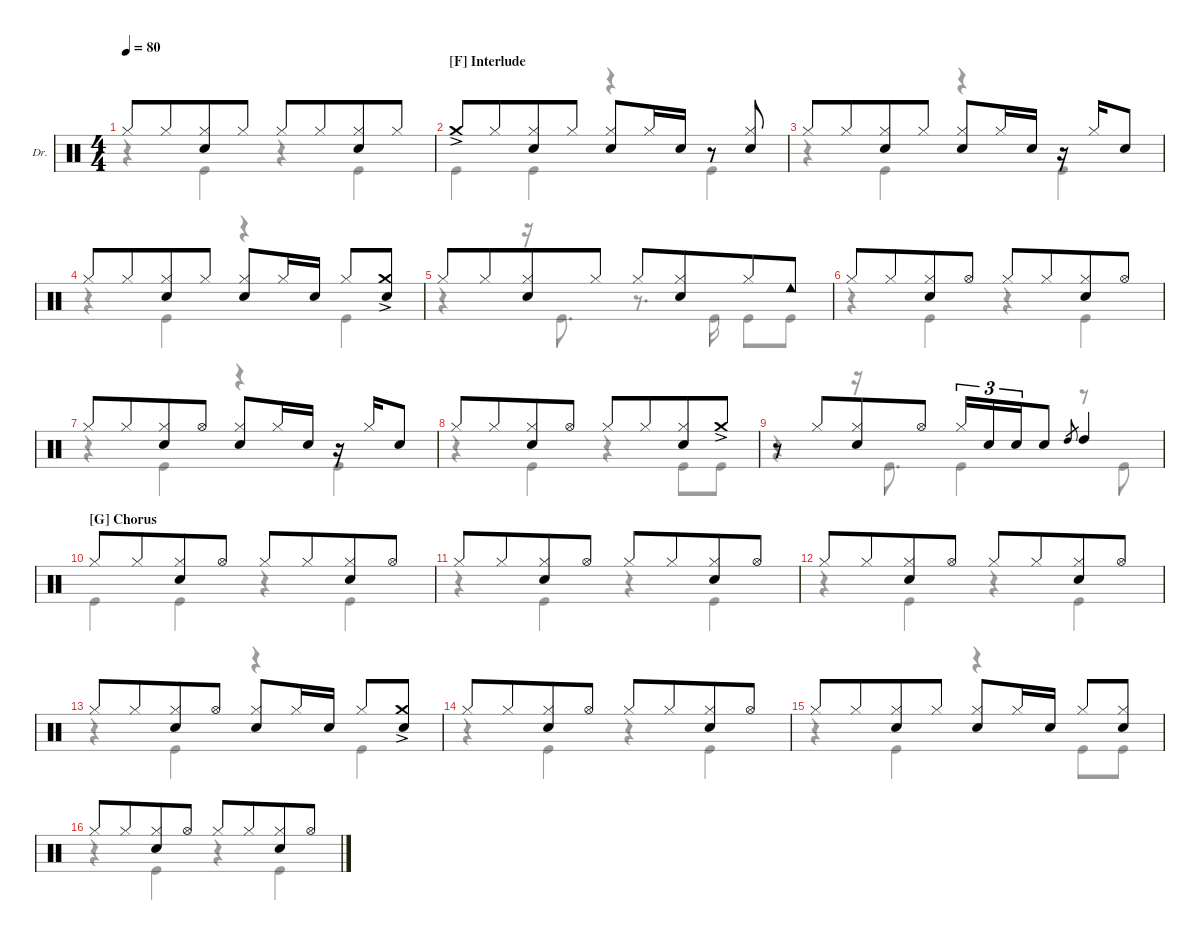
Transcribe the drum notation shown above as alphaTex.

\defaultSystemsLayout 4
\hideDynamics
\bracketExtendMode groupsimilarinstruments
\firstSystemTrackNameOrientation horizontal
\otherSystemsTrackNameOrientation horizontal
\track ("Drums" "Dr.") {multiBarRest instrument percussion}
\staff {score}
\articulation defaults
\voice
\ts (4 4)
\tempo 80
\clef neutral
\ks c "Hi-Hat (closed)".8{dy mf} "Hi-Hat (closed)".8{beam merge}
("Hi-Hat (closed)" "Snare (hit) 2").8 "Hi-Hat (closed)".8 "Hi-Hat (closed)".8 "Hi-Hat (closed)".8{beam merge} ("Hi-Hat (closed)" "Snare (hit) 2").8 "Hi-Hat (closed)".8 |
\section ("F" "Interlude")
"Crash medium (hit)"{ac}.8 "Hi-Hat (closed)".8{beam merge} ("Hi-Hat (closed)" "Snare (hit) 2").8 "Hi-Hat (closed)".8 ("Hi-Hat (closed)" "Snare (hit) 2").8 "Hi-Hat (closed)".16 "Snare (hit) 2".16 r.8 ("Hi-Hat (closed)" "Snare (hit) 2").8 |
"Hi-Hat (closed)".8 "Hi-Hat (closed)".8{beam merge} ("Hi-Hat (closed)" "Snare (hit) 2").8 "Hi-Hat (closed)".8 ("Hi-Hat (closed)" "Snare (hit) 2").8 "Hi-Hat (closed)".16 "Snare (hit) 2".16 r.16 "Hi-Hat (closed)".16 "Snare (hit) 2".8 |
"Hi-Hat (closed)".8 "Hi-Hat (closed)".8{beam merge} ("Hi-Hat (closed)" "Snare (hit) 2").8 "Hi-Hat (closed)".8 ("Hi-Hat (closed)" "Snare (hit) 2").8 "Hi-Hat (closed)".16 "Snare (hit) 2".16 "Hi-Hat (closed)".8 ("Crash medium (hit)"{ac} "Snare (hit) 2").8 |
"Hi-Hat (closed)".8 "Hi-Hat (closed)".8{beam merge} ("Hi-Hat (closed)" "Snare (hit) 2").8 "Hi-Hat (closed)".8 "Hi-Hat (closed)".8 ("Hi-Hat (closed)" "Snare (hit) 2").8{beam merge} "Hi-Hat (closed)".8{beam merge} "Cowbell low (hit)".8{beam merge} |
"Hi-Hat (closed)".8 "Hi-Hat (closed)".8{beam merge} ("Hi-Hat (closed)" "Snare (hit) 2").8{beam merge} "Hi-Hat (open)".8 "Hi-Hat (closed)".8 "Hi-Hat (closed)".8{beam merge} ("Hi-Hat (closed)" "Snare (hit) 2").8{beam merge} "Hi-Hat (open)".8 |
"Hi-Hat (closed)".8 "Hi-Hat (closed)".8{beam merge} ("Hi-Hat (closed)" "Snare (hit) 2").8 "Hi-Hat (open)".8 ("Hi-Hat (closed)" "Snare (hit) 2").8 "Hi-Hat (closed)".16 "Snare (hit) 2".16 r.16 "Hi-Hat (closed)".16 "Snare (hit) 2".8 |
"Hi-Hat (closed)".8 "Hi-Hat (closed)".8{beam merge} ("Hi-Hat (closed)" "Snare (hit) 2").8 "Hi-Hat (open)".8 "Hi-Hat (closed)".8 "Hi-Hat (closed)".8{beam merge} ("Hi-Hat (closed)" "Snare (hit) 2").8 "Crash medium (hit)"{ac}.8 |
r.8 "Hi-Hat (closed)".8{beam merge} ("Hi-Hat (closed)" "Snare (hit) 2").8 "Hi-Hat (open)".8 "Hi-Hat (closed)".16{tu (3 2)} "Snare (hit) 2".16{tu (3 2)} "Snare (hit) 2".16{tu (3 2) beam merge} "Snare (hit) 2".8 "High Tom (hit)".8{gr} "High Tom (hit)".4 |
\section ("G" "Chorus")
"Hi-Hat (closed)".8 "Hi-Hat (closed)".8{beam merge} ("Hi-Hat (closed)" "Snare (hit) 2").8{beam merge} "Hi-Hat (open)".8 "Hi-Hat (closed)".8 "Hi-Hat (closed)".8{beam merge} ("Hi-Hat (closed)" "Snare (hit) 2").8 "Hi-Hat (open)".8 |
"Hi-Hat (closed)".8 "Hi-Hat (closed)".8{beam merge} ("Hi-Hat (closed)" "Snare (hit) 2").8{beam merge} "Hi-Hat (open)".8 "Hi-Hat (closed)".8 "Hi-Hat (closed)".8{beam merge} ("Hi-Hat (closed)" "Snare (hit) 2").8 "Hi-Hat (open)".8 |
"Hi-Hat (closed)".8 "Hi-Hat (closed)".8{beam merge} ("Hi-Hat (closed)" "Snare (hit) 2").8{beam merge} "Hi-Hat (open)".8 "Hi-Hat (closed)".8 "Hi-Hat (closed)".8{beam merge} ("Hi-Hat (closed)" "Snare (hit) 2").8 "Hi-Hat (open)".8 |
"Hi-Hat (closed)".8 "Hi-Hat (closed)".8{beam merge} ("Hi-Hat (closed)" "Snare (hit) 2").8 "Hi-Hat (open)".8 ("Hi-Hat (closed)" "Snare (hit) 2").8 "Hi-Hat (closed)".16 "Snare (hit) 2".16 "Hi-Hat (closed)".8 ("Crash medium (hit)"{ac} "Snare (hit) 2").8 |
"Hi-Hat (closed)".8 "Hi-Hat (closed)".8{beam merge} ("Hi-Hat (closed)" "Snare (hit) 2").8{beam merge} "Hi-Hat (open)".8 "Hi-Hat (closed)".8 "Hi-Hat (closed)".8{beam merge} ("Hi-Hat (closed)" "Snare (hit) 2").8 "Hi-Hat (open)".8 |
"Hi-Hat (closed)".8 "Hi-Hat (closed)".8{beam merge} ("Hi-Hat (closed)" "Snare (hit) 2").8 "Hi-Hat (closed)".8 ("Hi-Hat (closed)" "Snare (hit) 2").8 "Hi-Hat (closed)".16 "Snare (hit) 2".16 "Hi-Hat (closed)".8 ("Hi-Hat (closed)" "Snare (hit) 2").8 |
"Hi-Hat (closed)".8 "Hi-Hat (closed)".8{beam merge} ("Hi-Hat (closed)" "Snare (hit) 2").8{beam merge} "Hi-Hat (open)".8 "Hi-Hat (closed)".8 "Hi-Hat (closed)".8{beam merge} ("Hi-Hat (closed)" "Snare (hit) 2").8 "Hi-Hat (open)".8
\voice
\clef neutral
\ottava regular
\simile none
\ks c
r.4{dy mf} "Kick (hit)".4 r.4 "Kick (hit)".4 |
"Kick (hit)".4 "Kick (hit)".4 r.4 "Kick (hit)".4 |
r.4 "Kick (hit)".4 r.4 "Kick (hit)".4 |
r.4 "Kick (hit)".4 r.4 "Kick (hit)".4 |
r.4 r.16 "Kick (hit)".8{d} r.8{d} "Kick (hit)".16 "Kick (hit)".8 "Kick (hit)".8 |
r.4 "Kick (hit)".4 r.4 "Kick (hit)".4 |
r.4 "Kick (hit)".4 r.4 "Kick (hit)".4 |
r.4 "Kick (hit)".4 r.4 "Kick (hit)".8 "Kick (hit)".8 |
r.4 r.16 "Kick (hit)".8{d} "Kick (hit)".4 r.8 "Kick (hit)".8 |
"Kick (hit)".4 "Kick (hit)".4 r.4 "Kick (hit)".4 |
r.4 "Kick (hit)".4 r.4 "Kick (hit)".4 |
r.4 "Kick (hit)".4 r.4 "Kick (hit)".4 |
r.4 "Kick (hit)".4 r.4 "Kick (hit)".4 |
r.4 "Kick (hit)".4 r.4 "Kick (hit)".4 |
r.4 "Kick (hit)".4 r.4 "Kick (hit)".8 "Kick (hit)".8 |
r.4 "Kick (hit)".4 r.4 "Kick (hit)".4
